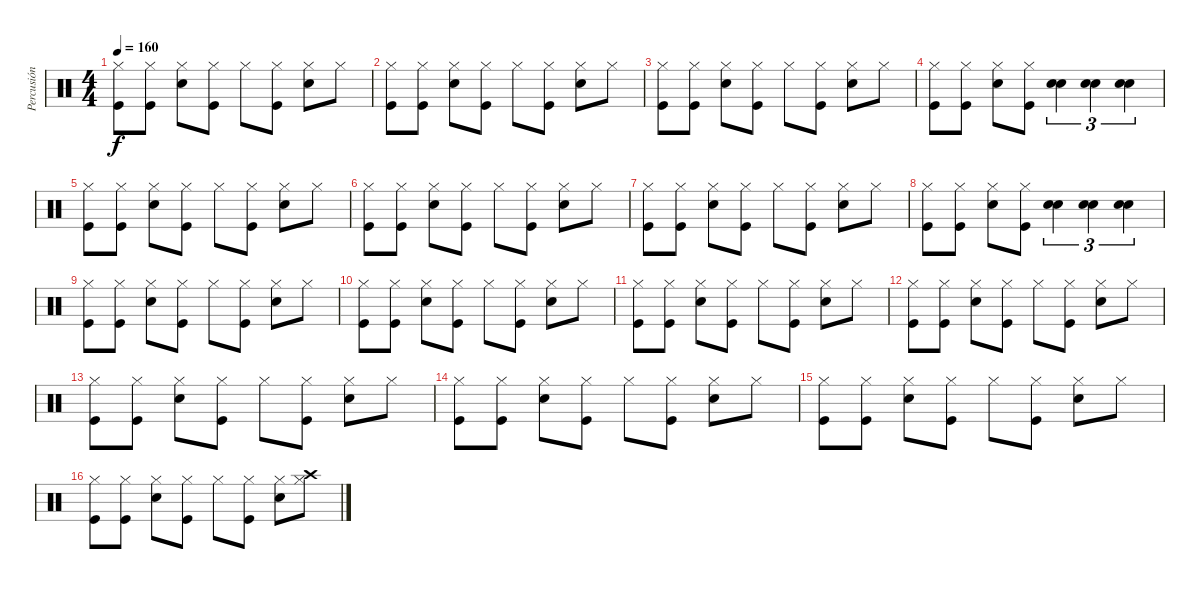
\track ("Percusión" "Percusión") {instrument percussion}
\staff {score}
\articulation defaults
\ts (4 4)
\tempo 160
\clef neutral
\ks c
("Hi-Hat (closed)" "Kick (hit)").8{dy f} ("Hi-Hat (closed)" "Kick (hit)").8 ("Hi-Hat (closed)" "Snare (hit) 2").8 ("Hi-Hat (closed)" "Kick (hit)").8 "Hi-Hat (closed)".8 ("Hi-Hat (closed)" "Kick (hit)").8 ("Hi-Hat (closed)" "Snare (hit) 2").8 "Hi-Hat (closed)".8 |
("Hi-Hat (closed)" "Kick (hit)").8 ("Hi-Hat (closed)" "Kick (hit)").8 ("Hi-Hat (closed)" "Snare (hit) 2").8 ("Hi-Hat (closed)" "Kick (hit)").8 "Hi-Hat (closed)".8 ("Hi-Hat (closed)" "Kick (hit)").8 ("Hi-Hat (closed)" "Snare (hit) 2").8 "Hi-Hat (closed)".8 |
("Hi-Hat (closed)" "Kick (hit)").8 ("Hi-Hat (closed)" "Kick (hit)").8 ("Hi-Hat (closed)" "Snare (hit) 2").8 ("Hi-Hat (closed)" "Kick (hit)").8 "Hi-Hat (closed)".8 ("Hi-Hat (closed)" "Kick (hit)").8 ("Hi-Hat (closed)" "Snare (hit) 2").8 "Hi-Hat (closed)".8 |
("Hi-Hat (closed)" "Kick (hit)").8 ("Hi-Hat (closed)" "Kick (hit)").8 ("Hi-Hat (closed)" "Snare (hit) 2").8 ("Hi-Hat (closed)" "Kick (hit)").8 ("Snare (hit) 2" "Snare (hit) 2").4{tu (3 2)} ("Snare (hit) 2" "Snare (hit) 2").4{tu (3 2)} ("Snare (hit) 2" "Snare (hit) 2").4{tu (3 2)} |
("Hi-Hat (closed)" "Kick (hit)").8 ("Hi-Hat (closed)" "Kick (hit)").8 ("Hi-Hat (closed)" "Snare (hit) 2").8 ("Hi-Hat (closed)" "Kick (hit)").8 "Hi-Hat (closed)".8 ("Hi-Hat (closed)" "Kick (hit)").8 ("Hi-Hat (closed)" "Snare (hit) 2").8 "Hi-Hat (closed)".8 |
("Hi-Hat (closed)" "Kick (hit)").8 ("Hi-Hat (closed)" "Kick (hit)").8 ("Hi-Hat (closed)" "Snare (hit) 2").8 ("Hi-Hat (closed)" "Kick (hit)").8 "Hi-Hat (closed)".8 ("Hi-Hat (closed)" "Kick (hit)").8 ("Hi-Hat (closed)" "Snare (hit) 2").8 "Hi-Hat (closed)".8 |
("Hi-Hat (closed)" "Kick (hit)").8 ("Hi-Hat (closed)" "Kick (hit)").8 ("Hi-Hat (closed)" "Snare (hit) 2").8 ("Hi-Hat (closed)" "Kick (hit)").8 "Hi-Hat (closed)".8 ("Hi-Hat (closed)" "Kick (hit)").8 ("Hi-Hat (closed)" "Snare (hit) 2").8 "Hi-Hat (closed)".8 |
("Hi-Hat (closed)" "Kick (hit)").8 ("Hi-Hat (closed)" "Kick (hit)").8 ("Hi-Hat (closed)" "Snare (hit) 2").8 ("Hi-Hat (closed)" "Kick (hit)").8 ("Snare (hit) 2" "Snare (hit) 2").4{tu (3 2)} ("Snare (hit) 2" "Snare (hit) 2").4{tu (3 2)} ("Snare (hit) 2" "Snare (hit) 2").4{tu (3 2)} |
("Hi-Hat (closed)" "Kick (hit)").8 ("Hi-Hat (closed)" "Kick (hit)").8 ("Hi-Hat (closed)" "Snare (hit) 2").8 ("Hi-Hat (closed)" "Kick (hit)").8 "Hi-Hat (closed)".8 ("Hi-Hat (closed)" "Kick (hit)").8 ("Hi-Hat (closed)" "Snare (hit) 2").8 "Hi-Hat (closed)".8 |
("Hi-Hat (closed)" "Kick (hit)").8 ("Hi-Hat (closed)" "Kick (hit)").8 ("Hi-Hat (closed)" "Snare (hit) 2").8 ("Hi-Hat (closed)" "Kick (hit)").8 "Hi-Hat (closed)".8 ("Hi-Hat (closed)" "Kick (hit)").8 ("Hi-Hat (closed)" "Snare (hit) 2").8 "Hi-Hat (closed)".8 |
("Hi-Hat (closed)" "Kick (hit)").8 ("Hi-Hat (closed)" "Kick (hit)").8 ("Hi-Hat (closed)" "Snare (hit) 2").8 ("Hi-Hat (closed)" "Kick (hit)").8 "Hi-Hat (closed)".8 ("Hi-Hat (closed)" "Kick (hit)").8 ("Hi-Hat (closed)" "Snare (hit) 2").8 "Hi-Hat (closed)".8 |
("Hi-Hat (closed)" "Kick (hit)").8 ("Hi-Hat (closed)" "Kick (hit)").8 ("Hi-Hat (closed)" "Snare (hit) 2").8 ("Hi-Hat (closed)" "Kick (hit)").8 "Hi-Hat (closed)".8 ("Hi-Hat (closed)" "Kick (hit)").8 ("Hi-Hat (closed)" "Snare (hit) 2").8 "Hi-Hat (closed)".8 |
("Hi-Hat (closed)" "Kick (hit)").8 ("Hi-Hat (closed)" "Kick (hit)").8 ("Hi-Hat (closed)" "Snare (hit) 2").8 ("Hi-Hat (closed)" "Kick (hit)").8 "Hi-Hat (closed)".8 ("Hi-Hat (closed)" "Kick (hit)").8 ("Hi-Hat (closed)" "Snare (hit) 2").8 "Hi-Hat (closed)".8 |
("Hi-Hat (closed)" "Kick (hit)").8 ("Hi-Hat (closed)" "Kick (hit)").8 ("Hi-Hat (closed)" "Snare (hit) 2").8 ("Hi-Hat (closed)" "Kick (hit)").8 "Hi-Hat (closed)".8 ("Hi-Hat (closed)" "Kick (hit)").8 ("Hi-Hat (closed)" "Snare (hit) 2").8 "Hi-Hat (closed)".8 |
("Hi-Hat (closed)" "Kick (hit)").8 ("Hi-Hat (closed)" "Kick (hit)").8 ("Hi-Hat (closed)" "Snare (hit) 2").8 ("Hi-Hat (closed)" "Kick (hit)").8 "Hi-Hat (closed)".8 ("Hi-Hat (closed)" "Kick (hit)").8 ("Hi-Hat (closed)" "Snare (hit) 2").8 "Hi-Hat (closed)".8 |
("Hi-Hat (closed)" "Kick (hit)").8 ("Hi-Hat (closed)" "Kick (hit)").8 ("Hi-Hat (closed)" "Snare (hit) 2").8 ("Hi-Hat (closed)" "Kick (hit)").8 "Hi-Hat (closed)".8 ("Hi-Hat (closed)" "Kick (hit)").8 ("Hi-Hat (closed)" "Snare (hit) 2").8 ("Hi-Hat (closed)" "Crash high (hit)").8
